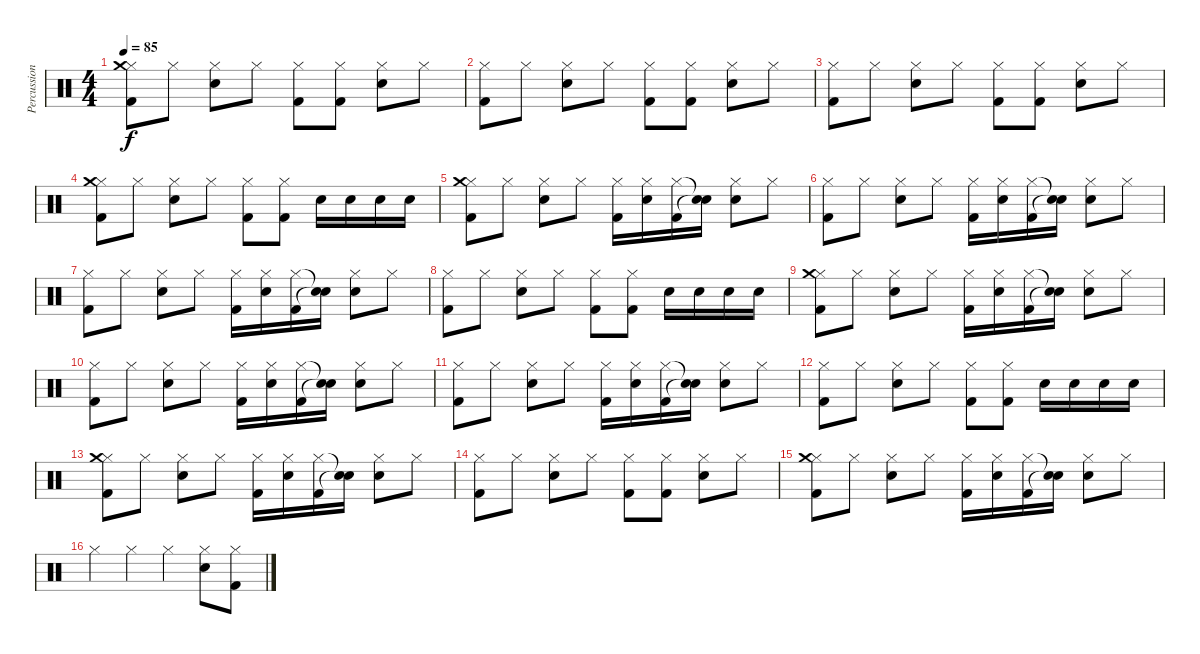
\track ("Percussion" "Percussion") {instrument percussion}
\staff {score}
\articulation defaults
\ts (4 4)
\tempo 85
\clef neutral
\ks c
("Hi-Hat (closed)" "Crash medium (hit)" "Kick (hit) 2").8{dy f} "Hi-Hat (closed)".8 ("Hi-Hat (closed)" "Snare (hit) 2").8 "Hi-Hat (closed)".8 ("Hi-Hat (closed)" "Kick (hit) 2").8 ("Hi-Hat (closed)" "Kick (hit) 2").8 ("Hi-Hat (closed)" "Snare (hit) 2").8 "Hi-Hat (closed)".8 |
("Hi-Hat (closed)" "Kick (hit) 2").8 "Hi-Hat (closed)".8 ("Hi-Hat (closed)" "Snare (hit) 2").8 "Hi-Hat (closed)".8 ("Hi-Hat (closed)" "Kick (hit) 2").8 ("Hi-Hat (closed)" "Kick (hit) 2").8 ("Hi-Hat (closed)" "Snare (hit) 2").8 "Hi-Hat (closed)".8 |
("Hi-Hat (closed)" "Kick (hit) 2").8 "Hi-Hat (closed)".8 ("Hi-Hat (closed)" "Snare (hit) 2").8 "Hi-Hat (closed)".8 ("Hi-Hat (closed)" "Kick (hit) 2").8 ("Hi-Hat (closed)" "Kick (hit) 2").8 ("Hi-Hat (closed)" "Snare (hit) 2").8 "Hi-Hat (closed)".8 |
("Hi-Hat (closed)" "Crash medium (hit)" "Kick (hit) 2").8 "Hi-Hat (closed)".8 ("Hi-Hat (closed)" "Snare (hit) 2").8 "Hi-Hat (closed)".8 ("Hi-Hat (closed)" "Kick (hit) 2").8 ("Hi-Hat (closed)" "Kick (hit) 2").8 "Snare (hit) 2".16 "Snare (hit) 2".16 "Snare (hit) 2".16 "Snare (hit) 2".16 |
("Hi-Hat (closed)" "Crash medium (hit)" "Kick (hit) 2").8 "Hi-Hat (closed)".8 ("Hi-Hat (closed)" "Snare (hit) 2").8 "Hi-Hat (closed)".8 ("Hi-Hat (closed)" "Kick (hit) 2").16 ("Hi-Hat (closed)" "Snare (hit) 2").16 ("Hi-Hat (closed)" "Kick (hit) 2").16 ("Snare (hit)"{t} "Snare (hit)"{t}).16 ("Hi-Hat (closed)" "Snare (hit) 2").8 "Hi-Hat (closed)".8 |
("Hi-Hat (closed)" "Kick (hit) 2").8 "Hi-Hat (closed)".8 ("Hi-Hat (closed)" "Snare (hit) 2").8 "Hi-Hat (closed)".8 ("Hi-Hat (closed)" "Kick (hit) 2").16 ("Hi-Hat (closed)" "Snare (hit) 2").16 ("Hi-Hat (closed)" "Kick (hit) 2").16 ("Snare (hit)"{t} "Snare (hit)"{t}).16 ("Hi-Hat (closed)" "Snare (hit) 2").8 "Hi-Hat (closed)".8 |
("Hi-Hat (closed)" "Kick (hit) 2").8 "Hi-Hat (closed)".8 ("Hi-Hat (closed)" "Snare (hit) 2").8 "Hi-Hat (closed)".8 ("Hi-Hat (closed)" "Kick (hit) 2").16 ("Hi-Hat (closed)" "Snare (hit) 2").16 ("Hi-Hat (closed)" "Kick (hit) 2").16 ("Snare (hit)"{t} "Snare (hit)"{t}).16 ("Hi-Hat (closed)" "Snare (hit) 2").8 "Hi-Hat (closed)".8 |
("Hi-Hat (closed)" "Kick (hit) 2").8 "Hi-Hat (closed)".8 ("Hi-Hat (closed)" "Snare (hit) 2").8 "Hi-Hat (closed)".8 ("Hi-Hat (closed)" "Kick (hit) 2").8 ("Hi-Hat (closed)" "Kick (hit) 2").8 "Snare (hit) 2".16 "Snare (hit) 2".16 "Snare (hit) 2".16 "Snare (hit) 2".16 |
("Hi-Hat (closed)" "Crash medium (hit)" "Kick (hit) 2").8 "Hi-Hat (closed)".8 ("Hi-Hat (closed)" "Snare (hit) 2").8 "Hi-Hat (closed)".8 ("Hi-Hat (closed)" "Kick (hit) 2").16 ("Hi-Hat (closed)" "Snare (hit) 2").16 ("Hi-Hat (closed)" "Kick (hit) 2").16 ("Snare (hit)"{t} "Snare (hit)"{t}).16 ("Hi-Hat (closed)" "Snare (hit) 2").8 "Hi-Hat (closed)".8 |
("Hi-Hat (closed)" "Kick (hit) 2").8 "Hi-Hat (closed)".8 ("Hi-Hat (closed)" "Snare (hit) 2").8 "Hi-Hat (closed)".8 ("Hi-Hat (closed)" "Kick (hit) 2").16 ("Hi-Hat (closed)" "Snare (hit) 2").16 ("Hi-Hat (closed)" "Kick (hit) 2").16 ("Snare (hit)"{t} "Snare (hit)"{t}).16 ("Hi-Hat (closed)" "Snare (hit) 2").8 "Hi-Hat (closed)".8 |
("Hi-Hat (closed)" "Kick (hit) 2").8 "Hi-Hat (closed)".8 ("Hi-Hat (closed)" "Snare (hit) 2").8 "Hi-Hat (closed)".8 ("Hi-Hat (closed)" "Kick (hit) 2").16 ("Hi-Hat (closed)" "Snare (hit) 2").16 ("Hi-Hat (closed)" "Kick (hit) 2").16 ("Snare (hit)"{t} "Snare (hit)"{t}).16 ("Hi-Hat (closed)" "Snare (hit) 2").8 "Hi-Hat (closed)".8 |
("Hi-Hat (closed)" "Kick (hit) 2").8 "Hi-Hat (closed)".8 ("Hi-Hat (closed)" "Snare (hit) 2").8 "Hi-Hat (closed)".8 ("Hi-Hat (closed)" "Kick (hit) 2").8 ("Hi-Hat (closed)" "Kick (hit) 2").8 "Snare (hit) 2".16 "Snare (hit) 2".16 "Snare (hit) 2".16 "Snare (hit) 2".16 |
("Hi-Hat (closed)" "Crash medium (hit)" "Kick (hit) 2").8 "Hi-Hat (closed)".8 ("Hi-Hat (closed)" "Snare (hit) 2").8 "Hi-Hat (closed)".8 ("Hi-Hat (closed)" "Kick (hit) 2").16 ("Hi-Hat (closed)" "Snare (hit) 2").16 ("Hi-Hat (closed)" "Kick (hit) 2").16 ("Snare (hit)"{t} "Snare (hit)"{t}).16 ("Hi-Hat (closed)" "Snare (hit) 2").8 "Hi-Hat (closed)".8 |
("Hi-Hat (closed)" "Kick (hit) 2").8 "Hi-Hat (closed)".8 ("Hi-Hat (closed)" "Snare (hit) 2").8 "Hi-Hat (closed)".8 ("Hi-Hat (closed)" "Kick (hit) 2").8 ("Hi-Hat (closed)" "Kick (hit) 2").8 ("Hi-Hat (closed)" "Snare (hit) 2").8 "Hi-Hat (closed)".8 |
("Hi-Hat (closed)" "Crash medium (hit)" "Kick (hit) 2").8 "Hi-Hat (closed)".8 ("Hi-Hat (closed)" "Snare (hit) 2").8 "Hi-Hat (closed)".8 ("Hi-Hat (closed)" "Kick (hit) 2").16 ("Hi-Hat (closed)" "Snare (hit) 2").16 ("Hi-Hat (closed)" "Kick (hit) 2").16 ("Snare (hit)"{t} "Snare (hit)"{t}).16 ("Hi-Hat (closed)" "Snare (hit) 2").8 "Hi-Hat (closed)".8 |
"Hi-Hat (closed)".4 "Hi-Hat (closed)".4 "Hi-Hat (closed)".4 ("Hi-Hat (closed)" "Snare (hit) 2").8 ("Hi-Hat (closed)" "Kick (hit) 2").8
